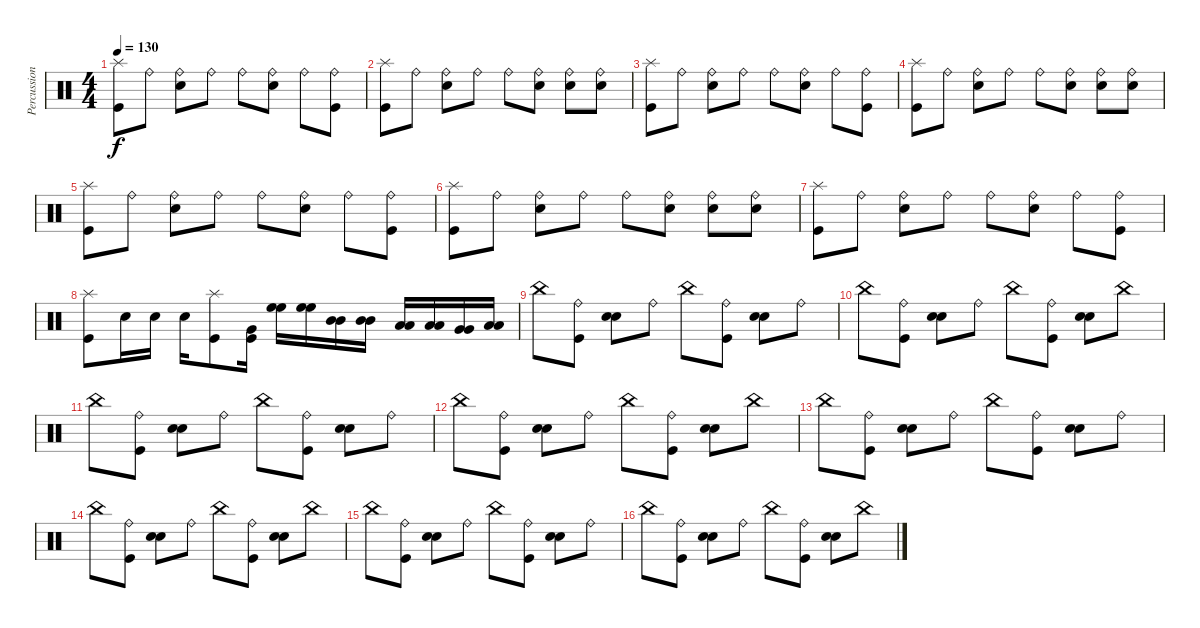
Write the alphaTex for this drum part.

\track ("Percussion" "Percussion") {instrument percussion}
\staff {score}
\articulation defaults
\ts (4 4)
\tempo 130
\clef neutral
\ks c
("Splash (hit)" "Kick (hit)").8{dy f} "Ride (bell)".8 ("Ride (bell)" "Electric Snare (hit)").8 "Ride (bell)".8 "Ride (bell)".8 ("Ride (bell)" "Electric Snare (hit)").8 "Ride (bell)".8 ("Ride (bell)" "Kick (hit)").8 |
("Splash (hit)" "Kick (hit)").8 "Ride (bell)".8 ("Ride (bell)" "Electric Snare (hit)").8 "Ride (bell)".8 "Ride (bell)".8 ("Ride (bell)" "Electric Snare (hit)").8 ("Ride (bell)" "Electric Snare (hit)").8 ("Ride (bell)" "Electric Snare (hit)").8 |
("Splash (hit)" "Kick (hit)").8 "Ride (bell)".8 ("Ride (bell)" "Electric Snare (hit)").8 "Ride (bell)".8 "Ride (bell)".8 ("Ride (bell)" "Electric Snare (hit)").8 "Ride (bell)".8 ("Ride (bell)" "Kick (hit)").8 |
("Splash (hit)" "Kick (hit)").8 "Ride (bell)".8 ("Ride (bell)" "Electric Snare (hit)").8 "Ride (bell)".8 "Ride (bell)".8 ("Ride (bell)" "Electric Snare (hit)").8 ("Ride (bell)" "Electric Snare (hit)").8 ("Ride (bell)" "Electric Snare (hit)").8 |
("Splash (hit)" "Kick (hit)").8 "Ride (bell)".8 ("Ride (bell)" "Electric Snare (hit)").8 "Ride (bell)".8 "Ride (bell)".8 ("Ride (bell)" "Electric Snare (hit)").8 "Ride (bell)".8 ("Ride (bell)" "Kick (hit)").8 |
("Splash (hit)" "Kick (hit)").8 "Ride (bell)".8 ("Ride (bell)" "Electric Snare (hit)").8 "Ride (bell)".8 "Ride (bell)".8 ("Ride (bell)" "Electric Snare (hit)").8 ("Ride (bell)" "Electric Snare (hit)").8 ("Ride (bell)" "Electric Snare (hit)").8 |
("Splash (hit)" "Kick (hit)").8 "Ride (bell)".8 ("Ride (bell)" "Electric Snare (hit)").8 "Ride (bell)".8 "Ride (bell)".8 ("Ride (bell)" "Electric Snare (hit)").8 "Ride (bell)".8 ("Ride (bell)" "Kick (hit)").8 |
("Splash (hit)" "Kick (hit)").8 "Electric Snare (hit)".16 "Electric Snare (hit)".16 "Electric Snare (hit)".16 ("Splash (hit)" "Kick (hit)").8 ("Very Low Tom (hit)" "Kick (hit)").16 ("High Floor Tom (hit)" "High Floor Tom (hit)").16 ("High Floor Tom (hit)" "High Floor Tom (hit)").16 ("Mid Tom (hit)" "Mid Tom (hit)").16 ("Mid Tom (hit)" "Mid Tom (hit)").16 ("Low Tom (hit)" "Low Tom (hit)").16 ("Low Tom (hit)" "Low Tom (hit)").16 ("Very Low Tom (hit)" "Very Low Tom (hit)").16 ("Low Floor Tom (hit)" "Low Floor Tom (hit)").16 |
"China (hit)".8 ("Ride (bell)" "Kick (hit)").8 ("Electric Snare (hit)" "Electric Snare (hit)").8 "Ride (bell)".8 "China (hit)".8 ("Ride (bell)" "Kick (hit)").8 ("Electric Snare (hit)" "Electric Snare (hit)").8 "Ride (bell)".8 |
"China (hit)".8 ("Ride (bell)" "Kick (hit)").8 ("Electric Snare (hit)" "Electric Snare (hit)").8 "Ride (bell)".8 "China (hit)".8 ("Ride (bell)" "Kick (hit)").8 ("Electric Snare (hit)" "Electric Snare (hit)").8 "China (hit)".8 |
"China (hit)".8 ("Ride (bell)" "Kick (hit)").8 ("Electric Snare (hit)" "Electric Snare (hit)").8 "Ride (bell)".8 "China (hit)".8 ("Ride (bell)" "Kick (hit)").8 ("Electric Snare (hit)" "Electric Snare (hit)").8 "Ride (bell)".8 |
"China (hit)".8 ("Ride (bell)" "Kick (hit)").8 ("Electric Snare (hit)" "Electric Snare (hit)").8 "Ride (bell)".8 "China (hit)".8 ("Ride (bell)" "Kick (hit)").8 ("Electric Snare (hit)" "Electric Snare (hit)").8 "China (hit)".8 |
"China (hit)".8 ("Ride (bell)" "Kick (hit)").8 ("Electric Snare (hit)" "Electric Snare (hit)").8 "Ride (bell)".8 "China (hit)".8 ("Ride (bell)" "Kick (hit)").8 ("Electric Snare (hit)" "Electric Snare (hit)").8 "Ride (bell)".8 |
"China (hit)".8 ("Ride (bell)" "Kick (hit)").8 ("Electric Snare (hit)" "Electric Snare (hit)").8 "Ride (bell)".8 "China (hit)".8 ("Ride (bell)" "Kick (hit)").8 ("Electric Snare (hit)" "Electric Snare (hit)").8 "China (hit)".8 |
"China (hit)".8 ("Ride (bell)" "Kick (hit)").8 ("Electric Snare (hit)" "Electric Snare (hit)").8 "Ride (bell)".8 "China (hit)".8 ("Ride (bell)" "Kick (hit)").8 ("Electric Snare (hit)" "Electric Snare (hit)").8 "Ride (bell)".8 |
"China (hit)".8 ("Ride (bell)" "Kick (hit)").8 ("Electric Snare (hit)" "Electric Snare (hit)").8 "Ride (bell)".8 "China (hit)".8 ("Ride (bell)" "Kick (hit)").8 ("Electric Snare (hit)" "Electric Snare (hit)").8 "China (hit)".8
